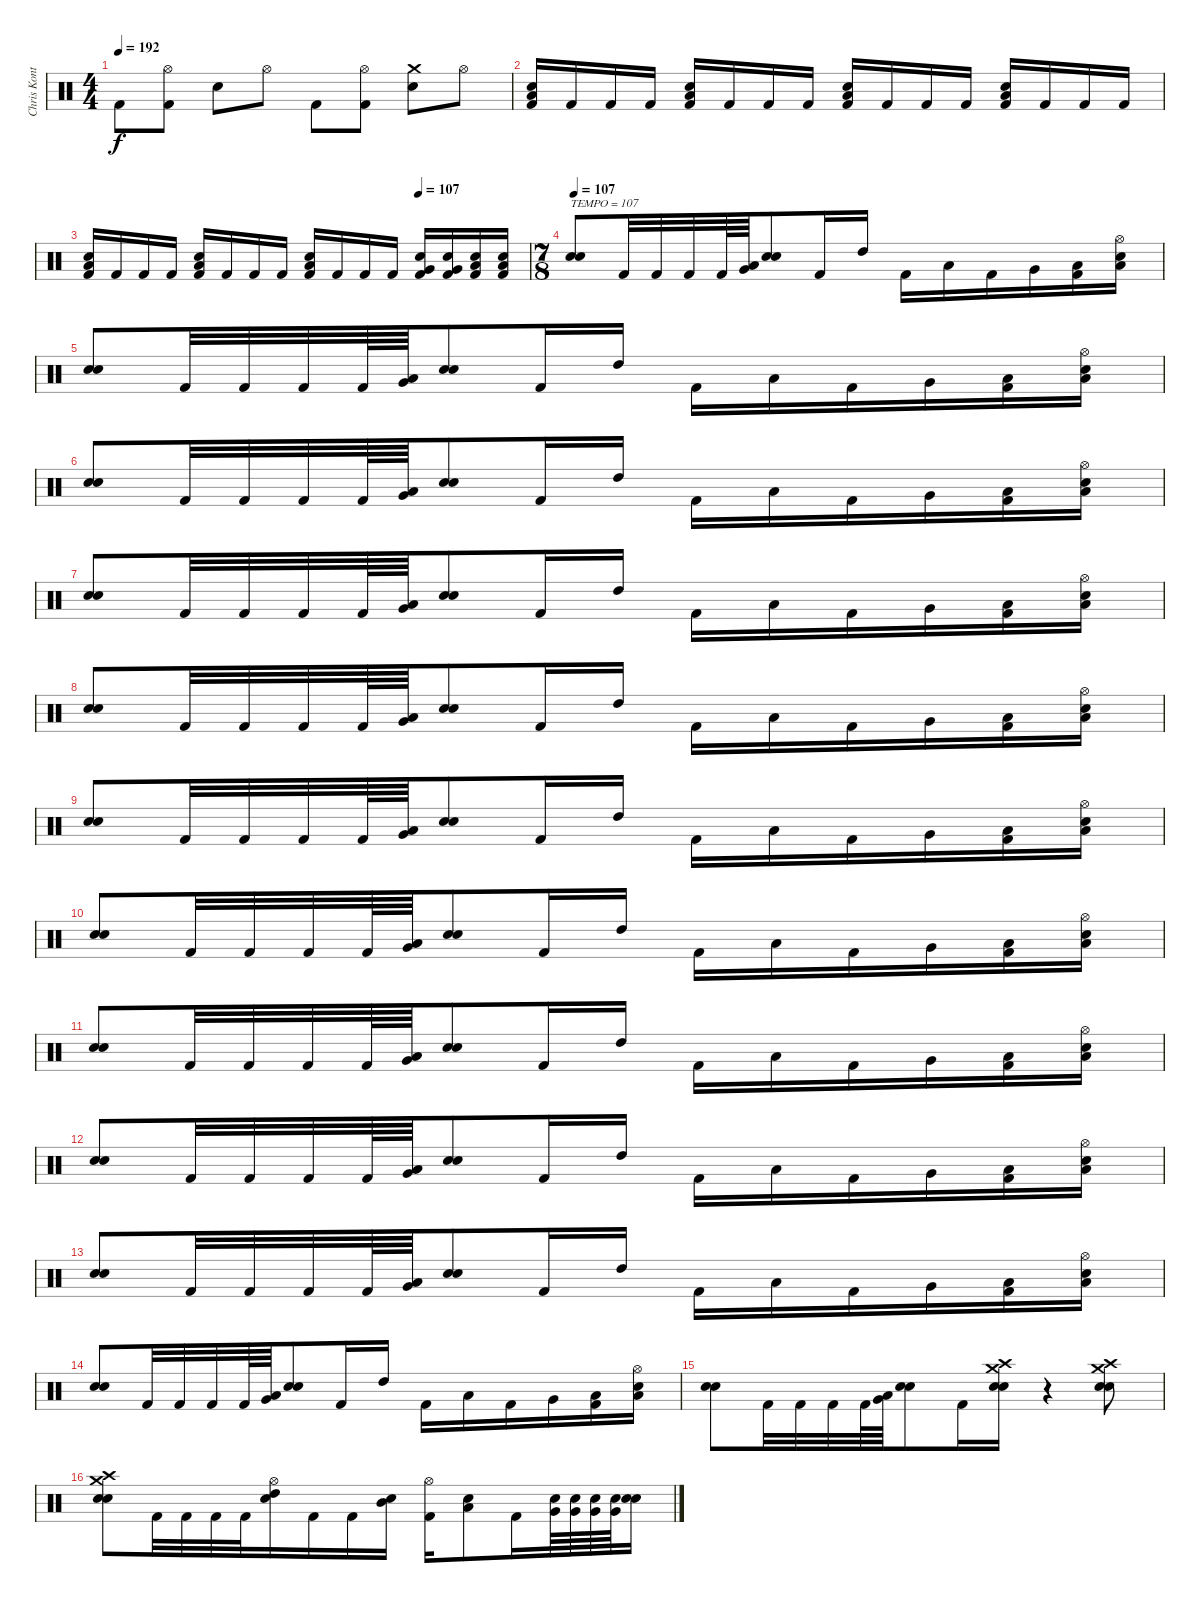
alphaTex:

\track ("Chris Kontos" "Chris Kont") {instrument percussion}
\staff {score}
\articulation defaults
\ts (4 4)
\tempo 192
\clef neutral
\ks c "Kick (hit) 2".8{dy f}
("Hi-Hat (open)" "Kick (hit) 2").8 "Electric Snare (hit)".8 "Hi-Hat (open)".8 "Kick (hit) 2".8 ("Hi-Hat (open)" "Kick (hit) 2").8 ("Crash medium (hit)" "Electric Snare (hit)").8 "Hi-Hat (open)".8 |
("Low Floor Tom (hit)" "Electric Snare (hit)" "Kick (hit) 2").16 "Kick (hit) 2".16 "Kick (hit) 2".16 "Kick (hit) 2".16 ("Low Floor Tom (hit)" "Electric Snare (hit)" "Kick (hit) 2").16 "Kick (hit) 2".16 "Kick (hit) 2".16 "Kick (hit) 2".16 ("Low Floor Tom (hit)" "Electric Snare (hit)" "Kick (hit) 2").16 "Kick (hit) 2".16 "Kick (hit) 2".16 "Kick (hit) 2".16 ("Low Floor Tom (hit)" "Electric Snare (hit)" "Kick (hit) 2").16 "Kick (hit) 2".16 "Kick (hit) 2".16 "Kick (hit) 2".16 |
\tempo (107 0.75)
("Low Floor Tom (hit)" "Electric Snare (hit)" "Kick (hit) 2").16 "Kick (hit) 2".16 "Kick (hit) 2".16 "Kick (hit) 2".16 ("Low Floor Tom (hit)" "Electric Snare (hit)" "Kick (hit) 2").16 "Kick (hit) 2".16 "Kick (hit) 2".16 "Kick (hit) 2".16 ("Low Floor Tom (hit)" "Electric Snare (hit)" "Kick (hit) 2").16 "Kick (hit) 2".16 "Kick (hit) 2".16 "Kick (hit) 2".16 ("Very Low Tom (hit)" "Electric Snare (hit)" "Kick (hit) 2").16 ("Very Low Tom (hit)" "Electric Snare (hit)" "Kick (hit) 2").16 ("Low Floor Tom (hit)" "Electric Snare (hit)" "Kick (hit) 2").16 ("Low Floor Tom (hit)" "Electric Snare (hit)" "Kick (hit) 2").16 |
\ts (7 8)
\tempo 107
("Snare (hit) 2" "Electric Snare (hit)").8{txt "TEMPO = 107"} "Kick (hit) 2".32 "Kick (hit) 2".32 "Kick (hit) 2".32 "Kick (hit) 2".64 ("Very Low Tom (hit)" "Low Floor Tom (hit)").64 ("Snare (hit) 2" "Electric Snare (hit)").8 "Kick (hit) 2".16 "High Tom (hit)".16 "Kick (hit) 2".16 "Low Tom (hit)".16 "Kick (hit) 2".16 "Very Low Tom (hit)".16 ("Low Tom (hit)" "Kick (hit) 2").16 ("Low Floor Tom (hit)" "Hi-Hat (open)" "Electric Snare (hit)").16 |
("Snare (hit) 2" "Electric Snare (hit)").8 "Kick (hit) 2".32 "Kick (hit) 2".32 "Kick (hit) 2".32 "Kick (hit) 2".64 ("Very Low Tom (hit)" "Low Floor Tom (hit)").64 ("Snare (hit) 2" "Electric Snare (hit)").8 "Kick (hit) 2".16 "High Tom (hit)".16 "Kick (hit) 2".16 "Low Tom (hit)".16 "Kick (hit) 2".16 "Very Low Tom (hit)".16 ("Low Tom (hit)" "Kick (hit) 2").16 ("Low Floor Tom (hit)" "Hi-Hat (open)" "Electric Snare (hit)").16 |
("Snare (hit) 2" "Electric Snare (hit)").8 "Kick (hit) 2".32 "Kick (hit) 2".32 "Kick (hit) 2".32 "Kick (hit) 2".64 ("Very Low Tom (hit)" "Low Floor Tom (hit)").64 ("Snare (hit) 2" "Electric Snare (hit)").8 "Kick (hit) 2".16 "High Tom (hit)".16 "Kick (hit) 2".16 "Low Tom (hit)".16 "Kick (hit) 2".16 "Very Low Tom (hit)".16 ("Low Tom (hit)" "Kick (hit) 2").16 ("Low Floor Tom (hit)" "Hi-Hat (open)" "Electric Snare (hit)").16 |
("Snare (hit) 2" "Electric Snare (hit)").8 "Kick (hit) 2".32 "Kick (hit) 2".32 "Kick (hit) 2".32 "Kick (hit) 2".64 ("Very Low Tom (hit)" "Low Floor Tom (hit)").64 ("Snare (hit) 2" "Electric Snare (hit)").8 "Kick (hit) 2".16 "High Tom (hit)".16 "Kick (hit) 2".16 "Low Tom (hit)".16 "Kick (hit) 2".16 "Very Low Tom (hit)".16 ("Low Tom (hit)" "Kick (hit) 2").16 ("Low Floor Tom (hit)" "Hi-Hat (open)" "Electric Snare (hit)").16 |
("Snare (hit) 2" "Electric Snare (hit)").8 "Kick (hit) 2".32 "Kick (hit) 2".32 "Kick (hit) 2".32 "Kick (hit) 2".64 ("Very Low Tom (hit)" "Low Floor Tom (hit)").64 ("Snare (hit) 2" "Electric Snare (hit)").8 "Kick (hit) 2".16 "High Tom (hit)".16 "Kick (hit) 2".16 "Low Tom (hit)".16 "Kick (hit) 2".16 "Very Low Tom (hit)".16 ("Low Tom (hit)" "Kick (hit) 2").16 ("Low Floor Tom (hit)" "Hi-Hat (open)" "Electric Snare (hit)").16 |
("Snare (hit) 2" "Electric Snare (hit)").8 "Kick (hit) 2".32 "Kick (hit) 2".32 "Kick (hit) 2".32 "Kick (hit) 2".64 ("Very Low Tom (hit)" "Low Floor Tom (hit)").64 ("Snare (hit) 2" "Electric Snare (hit)").8 "Kick (hit) 2".16 "High Tom (hit)".16 "Kick (hit) 2".16 "Low Tom (hit)".16 "Kick (hit) 2".16 "Very Low Tom (hit)".16 ("Low Tom (hit)" "Kick (hit) 2").16 ("Low Floor Tom (hit)" "Hi-Hat (open)" "Electric Snare (hit)").16 |
("Snare (hit) 2" "Electric Snare (hit)").8 "Kick (hit) 2".32 "Kick (hit) 2".32 "Kick (hit) 2".32 "Kick (hit) 2".64 ("Very Low Tom (hit)" "Low Floor Tom (hit)").64 ("Snare (hit) 2" "Electric Snare (hit)").8 "Kick (hit) 2".16 "High Tom (hit)".16 "Kick (hit) 2".16 "Low Tom (hit)".16 "Kick (hit) 2".16 "Very Low Tom (hit)".16 ("Low Tom (hit)" "Kick (hit) 2").16 ("Low Floor Tom (hit)" "Hi-Hat (open)" "Electric Snare (hit)").16 |
("Snare (hit) 2" "Electric Snare (hit)").8 "Kick (hit) 2".32 "Kick (hit) 2".32 "Kick (hit) 2".32 "Kick (hit) 2".64 ("Very Low Tom (hit)" "Low Floor Tom (hit)").64 ("Snare (hit) 2" "Electric Snare (hit)").8 "Kick (hit) 2".16 "High Tom (hit)".16 "Kick (hit) 2".16 "Low Tom (hit)".16 "Kick (hit) 2".16 "Very Low Tom (hit)".16 ("Low Tom (hit)" "Kick (hit) 2").16 ("Low Floor Tom (hit)" "Hi-Hat (open)" "Electric Snare (hit)").16 |
("Snare (hit) 2" "Electric Snare (hit)").8 "Kick (hit) 2".32 "Kick (hit) 2".32 "Kick (hit) 2".32 "Kick (hit) 2".64 ("Very Low Tom (hit)" "Low Floor Tom (hit)").64 ("Snare (hit) 2" "Electric Snare (hit)").8 "Kick (hit) 2".16 "High Tom (hit)".16 "Kick (hit) 2".16 "Low Tom (hit)".16 "Kick (hit) 2".16 "Very Low Tom (hit)".16 ("Low Tom (hit)" "Kick (hit) 2").16 ("Low Floor Tom (hit)" "Hi-Hat (open)" "Electric Snare (hit)").16 |
("Snare (hit) 2" "Electric Snare (hit)").8 "Kick (hit) 2".32 "Kick (hit) 2".32 "Kick (hit) 2".32 "Kick (hit) 2".64 ("Very Low Tom (hit)" "Low Floor Tom (hit)").64 ("Snare (hit) 2" "Electric Snare (hit)").8 "Kick (hit) 2".16 "High Tom (hit)".16 "Kick (hit) 2".16 "Low Tom (hit)".16 "Kick (hit) 2".16 "Very Low Tom (hit)".16 ("Low Tom (hit)" "Kick (hit) 2").16 ("Low Floor Tom (hit)" "Hi-Hat (open)" "Electric Snare (hit)").16 |
("Snare (hit) 2" "Electric Snare (hit)").8 "Kick (hit) 2".32 "Kick (hit) 2".32 "Kick (hit) 2".32 "Kick (hit) 2".64 ("Very Low Tom (hit)" "Low Floor Tom (hit)").64 ("Snare (hit) 2" "Electric Snare (hit)").8 "Kick (hit) 2".16 "High Tom (hit)".16 "Kick (hit) 2".16 "Low Tom (hit)".16 "Kick (hit) 2".16 "Very Low Tom (hit)".16 ("Low Tom (hit)" "Kick (hit) 2").16 ("Low Floor Tom (hit)" "Hi-Hat (open)" "Electric Snare (hit)").16 |
("Snare (hit) 2" "Electric Snare (hit)").8 "Kick (hit) 2".32 "Kick (hit) 2".32 "Kick (hit) 2".32 "Kick (hit) 2".64 ("Very Low Tom (hit)" "Low Floor Tom (hit)").64 ("Snare (hit) 2" "Electric Snare (hit)").8 "Kick (hit) 2".16 ("Crash high (hit)" "Snare (hit) 2" "Crash medium (hit)" "Electric Snare (hit)").16 r.4 ("Crash high (hit)" "Snare (hit) 2" "Crash medium (hit)" "Electric Snare (hit)").8 |
("Crash high (hit)" "Snare (hit) 2" "Crash medium (hit)" "Electric Snare (hit)").8 "Kick (hit) 2".32 "Kick (hit) 2".32 "Kick (hit) 2".32 "Kick (hit) 2".32 ("High Tom (hit)" "Hi-Hat (open)" "Snare (hit) 2").16 "Kick (hit) 2".16 "Kick (hit) 2".16 ("Mid Tom (hit)" "Snare (hit) 2").16 ("Hi-Hat (open)" "Kick (hit) 2").16 ("Low Tom (hit)" "Snare (hit) 2").8 "Kick (hit) 2".16 ("Very Low Tom (hit)" "Electric Snare (hit)").64 ("Very Low Tom (hit)" "Electric Snare (hit)").64 ("Very Low Tom (hit)" "Electric Snare (hit)").64 ("Very Low Tom (hit)" "Electric Snare (hit)").64 ("Snare (hit) 2" "Electric Snare (hit)").16
